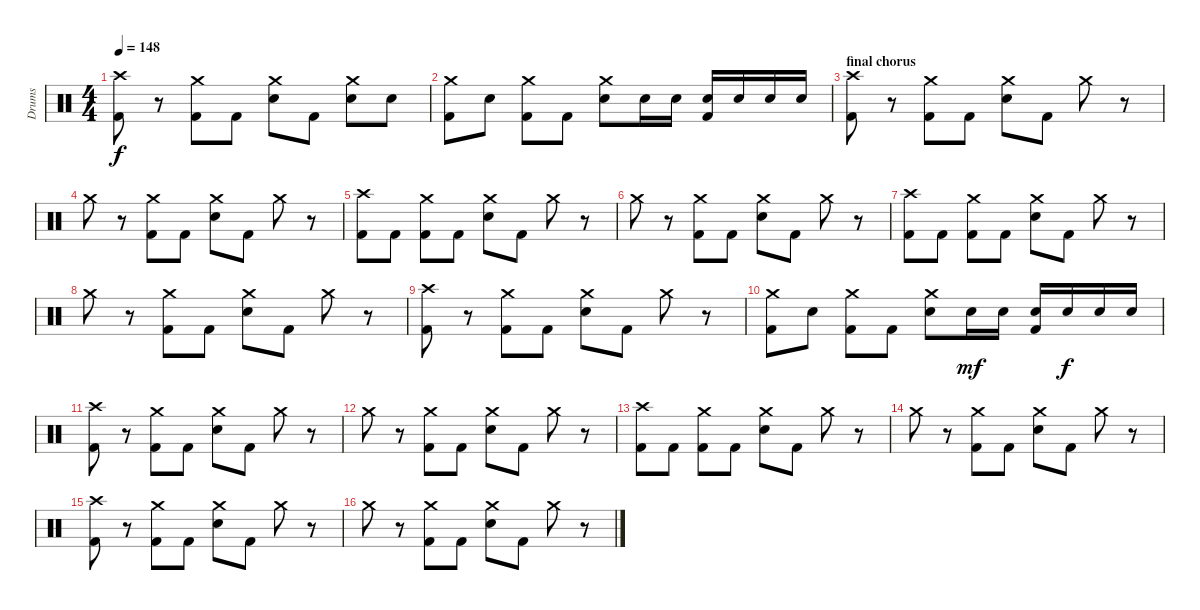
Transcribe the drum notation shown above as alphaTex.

\track ("Drums" "Drums") {instrument percussion}
\staff {score}
\articulation defaults
\ts (4 4)
\tempo 148
\clef neutral
\ks c
("Crash high (hit)" "Kick (hit) 2").8{dy f} r.8 ("Crash medium (hit)" "Kick (hit) 2").8 "Kick (hit) 2".8 ("Crash medium (hit)" "Electric Snare (hit)").8 "Kick (hit) 2".8 ("Crash medium (hit)" "Electric Snare (hit)").8 "Electric Snare (hit)".8 |
("Crash medium (hit)" "Kick (hit) 2").8 "Electric Snare (hit)".8 ("Crash medium (hit)" "Kick (hit) 2").8 "Kick (hit) 2".8 ("Crash medium (hit)" "Electric Snare (hit)").8 "Electric Snare (hit)".16 "Electric Snare (hit)".16 ("Electric Snare (hit)" "Kick (hit) 2").16 "Electric Snare (hit)".16 "Electric Snare (hit)".16 "Electric Snare (hit)".16 |
\section ("" "final chorus")
("Crash high (hit)" "Kick (hit) 2").8 r.8 ("Crash medium (hit)" "Kick (hit) 2").8 "Kick (hit) 2".8 ("Crash medium (hit)" "Electric Snare (hit)").8 "Kick (hit) 2".8 "Crash medium (hit)".8 r.8 |
"Crash medium (hit)".8 r.8 ("Crash medium (hit)" "Kick (hit) 2").8 "Kick (hit) 2".8 ("Crash medium (hit)" "Electric Snare (hit)").8 "Kick (hit) 2".8 "Crash medium (hit)".8 r.8 |
("Crash high (hit)" "Kick (hit) 2").8 "Kick (hit) 2".8 ("Crash medium (hit)" "Kick (hit) 2").8 "Kick (hit) 2".8 ("Crash medium (hit)" "Electric Snare (hit)").8 "Kick (hit) 2".8 "Crash medium (hit)".8 r.8 |
"Crash medium (hit)".8 r.8 ("Crash medium (hit)" "Kick (hit) 2").8 "Kick (hit) 2".8 ("Crash medium (hit)" "Electric Snare (hit)").8 "Kick (hit) 2".8 "Crash medium (hit)".8 r.8 |
("Crash high (hit)" "Kick (hit) 2").8 "Kick (hit) 2".8 ("Crash medium (hit)" "Kick (hit) 2").8 "Kick (hit) 2".8 ("Crash medium (hit)" "Electric Snare (hit)").8 "Kick (hit) 2".8 "Crash medium (hit)".8 r.8 |
"Crash medium (hit)".8 r.8 ("Crash medium (hit)" "Kick (hit) 2").8 "Kick (hit) 2".8 ("Crash medium (hit)" "Electric Snare (hit)").8 "Kick (hit) 2".8 "Crash medium (hit)".8 r.8 |
("Crash high (hit)" "Kick (hit) 2").8 r.8 ("Crash medium (hit)" "Kick (hit) 2").8 "Kick (hit) 2".8 ("Crash medium (hit)" "Electric Snare (hit)").8 "Kick (hit) 2".8 "Crash medium (hit)".8 r.8 |
("Crash medium (hit)" "Kick (hit) 2").8 "Electric Snare (hit)".8 ("Crash medium (hit)" "Kick (hit) 2").8 "Kick (hit) 2".8 ("Crash medium (hit)" "Electric Snare (hit)").8 "Electric Snare (hit)".16{dy mf} "Electric Snare (hit)".16 ("Electric Snare (hit)" "Kick (hit) 2").16 "Electric Snare (hit)".16{dy f} "Electric Snare (hit)".16 "Electric Snare (hit)".16 |
("Crash high (hit)" "Kick (hit) 2").8 r.8 ("Crash medium (hit)" "Kick (hit) 2").8 "Kick (hit) 2".8 ("Crash medium (hit)" "Electric Snare (hit)").8 "Kick (hit) 2".8 "Crash medium (hit)".8 r.8 |
"Crash medium (hit)".8 r.8 ("Crash medium (hit)" "Kick (hit) 2").8 "Kick (hit) 2".8 ("Crash medium (hit)" "Electric Snare (hit)").8 "Kick (hit) 2".8 "Crash medium (hit)".8 r.8 |
("Crash high (hit)" "Kick (hit) 2").8 "Kick (hit) 2".8 ("Crash medium (hit)" "Kick (hit) 2").8 "Kick (hit) 2".8 ("Crash medium (hit)" "Electric Snare (hit)").8 "Kick (hit) 2".8 "Crash medium (hit)".8 r.8 |
"Crash medium (hit)".8 r.8 ("Crash medium (hit)" "Kick (hit) 2").8 "Kick (hit) 2".8 ("Crash medium (hit)" "Electric Snare (hit)").8 "Kick (hit) 2".8 "Crash medium (hit)".8 r.8 |
("Crash high (hit)" "Kick (hit) 2").8 r.8 ("Crash medium (hit)" "Kick (hit) 2").8 "Kick (hit) 2".8 ("Crash medium (hit)" "Electric Snare (hit)").8 "Kick (hit) 2".8 "Crash medium (hit)".8 r.8 |
"Crash medium (hit)".8 r.8 ("Crash medium (hit)" "Kick (hit) 2").8 "Kick (hit) 2".8 ("Crash medium (hit)" "Electric Snare (hit)").8 "Kick (hit) 2".8 "Crash medium (hit)".8 r.8
